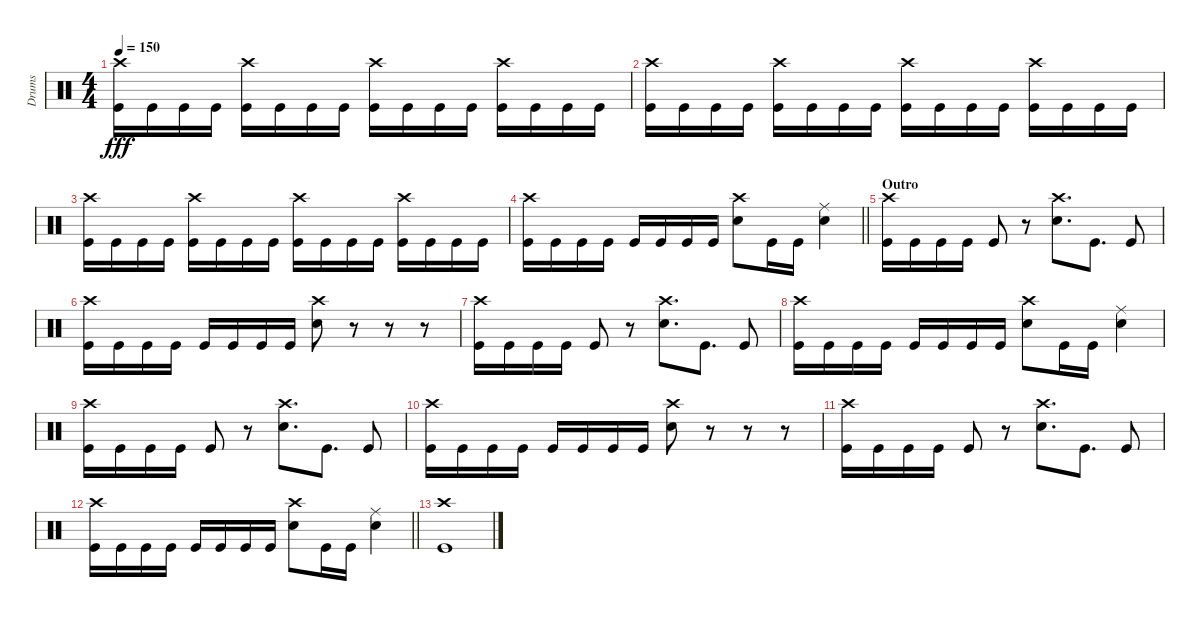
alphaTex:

\track ("Drums" "Drums") {instrument percussion}
\staff {score}
\articulation defaults
\ts (4 4)
\tempo 150
\clef neutral
\ks c
("Crash high (hit)" "Kick (hit)").16{dy fff} "Kick (hit)".16 "Kick (hit)".16 "Kick (hit)".16 ("Crash high (hit)" "Kick (hit)").16 "Kick (hit)".16 "Kick (hit)".16 "Kick (hit)".16 ("Crash high (hit)" "Kick (hit)").16 "Kick (hit)".16 "Kick (hit)".16 "Kick (hit)".16 ("Crash high (hit)" "Kick (hit)").16 "Kick (hit)".16 "Kick (hit)".16 "Kick (hit)".16 |
("Crash high (hit)" "Kick (hit)").16 "Kick (hit)".16 "Kick (hit)".16 "Kick (hit)".16 ("Crash high (hit)" "Kick (hit)").16 "Kick (hit)".16 "Kick (hit)".16 "Kick (hit)".16 ("Crash high (hit)" "Kick (hit)").16 "Kick (hit)".16 "Kick (hit)".16 "Kick (hit)".16 ("Crash high (hit)" "Kick (hit)").16 "Kick (hit)".16 "Kick (hit)".16 "Kick (hit)".16 |
("Crash high (hit)" "Kick (hit)").16 "Kick (hit)".16 "Kick (hit)".16 "Kick (hit)".16 ("Crash high (hit)" "Kick (hit)").16 "Kick (hit)".16 "Kick (hit)".16 "Kick (hit)".16 ("Crash high (hit)" "Kick (hit)").16 "Kick (hit)".16 "Kick (hit)".16 "Kick (hit)".16 ("Crash high (hit)" "Kick (hit)").16 "Kick (hit)".16 "Kick (hit)".16 "Kick (hit)".16 |
\barLineRight lightlight
("Crash high (hit)" "Kick (hit)").16 "Kick (hit)".16 "Kick (hit)".16 "Kick (hit)".16 "Kick (hit)".16 "Kick (hit)".16 "Kick (hit)".16 "Kick (hit)".16 ("Crash high (hit)" "Snare (hit) 2").8 "Kick (hit)".16 "Kick (hit)".16 ("Ride (middle)" "Snare (hit) 2").4 |
\section ("" "Outro")
("Crash high (hit)" "Kick (hit)").16 "Kick (hit)".16 "Kick (hit)".16 "Kick (hit)".16 "Kick (hit)".8 r.8 ("Crash high (hit)" "Snare (hit) 2").8{d} "Kick (hit)".8{d} "Kick (hit)".8 |
("Crash high (hit)" "Kick (hit)").16 "Kick (hit)".16 "Kick (hit)".16 "Kick (hit)".16 "Kick (hit)".16 "Kick (hit)".16 "Kick (hit)".16 "Kick (hit)".16 ("Crash high (hit)" "Snare (hit) 2").8 r.8 r.8 r.8 |
("Crash high (hit)" "Kick (hit)").16 "Kick (hit)".16 "Kick (hit)".16 "Kick (hit)".16 "Kick (hit)".8 r.8 ("Crash high (hit)" "Snare (hit) 2").8{d} "Kick (hit)".8{d} "Kick (hit)".8 |
("Crash high (hit)" "Kick (hit)").16 "Kick (hit)".16 "Kick (hit)".16 "Kick (hit)".16 "Kick (hit)".16 "Kick (hit)".16 "Kick (hit)".16 "Kick (hit)".16 ("Crash high (hit)" "Snare (hit) 2").8 "Kick (hit)".16 "Kick (hit)".16 ("Ride (middle)" "Snare (hit) 2").4 |
("Crash high (hit)" "Kick (hit)").16 "Kick (hit)".16 "Kick (hit)".16 "Kick (hit)".16 "Kick (hit)".8 r.8 ("Crash high (hit)" "Snare (hit) 2").8{d} "Kick (hit)".8{d} "Kick (hit)".8 |
("Crash high (hit)" "Kick (hit)").16 "Kick (hit)".16 "Kick (hit)".16 "Kick (hit)".16 "Kick (hit)".16 "Kick (hit)".16 "Kick (hit)".16 "Kick (hit)".16 ("Crash high (hit)" "Snare (hit) 2").8 r.8 r.8 r.8 |
("Crash high (hit)" "Kick (hit)").16 "Kick (hit)".16 "Kick (hit)".16 "Kick (hit)".16 "Kick (hit)".8 r.8 ("Crash high (hit)" "Snare (hit) 2").8{d} "Kick (hit)".8{d} "Kick (hit)".8 |
\barLineRight lightlight
("Crash high (hit)" "Kick (hit)").16 "Kick (hit)".16 "Kick (hit)".16 "Kick (hit)".16 "Kick (hit)".16 "Kick (hit)".16 "Kick (hit)".16 "Kick (hit)".16 ("Crash high (hit)" "Snare (hit) 2").8 "Kick (hit)".16 "Kick (hit)".16 ("Ride (middle)" "Snare (hit) 2").4 |
("Crash high (hit)" "Kick (hit)").1
